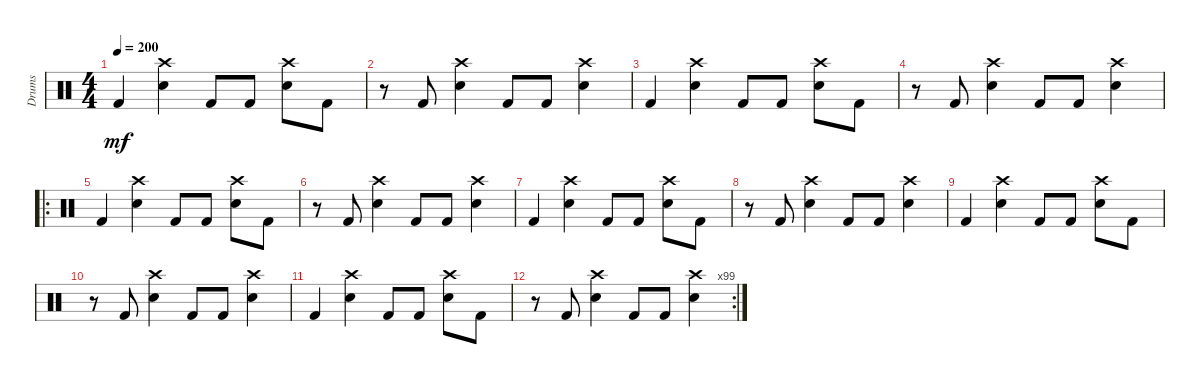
\track ("Drums" "Drums") {instrument percussion}
\staff {score}
\articulation defaults
\ts (4 4)
\tempo 200
\clef neutral
\ks c "Kick (hit) 2".4{dy mf}
("Crash high (hit)" "Electric Snare (hit)").4 "Kick (hit) 2".8 "Kick (hit) 2".8 ("Crash high (hit)" "Electric Snare (hit)").8 "Kick (hit) 2".8 |
r.8 "Kick (hit) 2".8 ("Crash high (hit)" "Electric Snare (hit)").4 "Kick (hit) 2".8 "Kick (hit) 2".8 ("Crash high (hit)" "Electric Snare (hit)").4 |
"Kick (hit) 2".4 ("Crash high (hit)" "Electric Snare (hit)").4 "Kick (hit) 2".8 "Kick (hit) 2".8 ("Crash high (hit)" "Electric Snare (hit)").8 "Kick (hit) 2".8 |
r.8 "Kick (hit) 2".8 ("Crash high (hit)" "Electric Snare (hit)").4 "Kick (hit) 2".8 "Kick (hit) 2".8 ("Crash high (hit)" "Electric Snare (hit)").4 |
\ro "Kick (hit) 2".4
("Crash high (hit)" "Electric Snare (hit)").4 "Kick (hit) 2".8 "Kick (hit) 2".8 ("Crash high (hit)" "Electric Snare (hit)").8 "Kick (hit) 2".8 |
r.8 "Kick (hit) 2".8 ("Crash high (hit)" "Electric Snare (hit)").4 "Kick (hit) 2".8 "Kick (hit) 2".8 ("Crash high (hit)" "Electric Snare (hit)").4 |
"Kick (hit) 2".4 ("Crash high (hit)" "Electric Snare (hit)").4 "Kick (hit) 2".8 "Kick (hit) 2".8 ("Crash high (hit)" "Electric Snare (hit)").8 "Kick (hit) 2".8 |
r.8 "Kick (hit) 2".8 ("Crash high (hit)" "Electric Snare (hit)").4 "Kick (hit) 2".8 "Kick (hit) 2".8 ("Crash high (hit)" "Electric Snare (hit)").4 |
"Kick (hit) 2".4 ("Crash high (hit)" "Electric Snare (hit)").4 "Kick (hit) 2".8 "Kick (hit) 2".8 ("Crash high (hit)" "Electric Snare (hit)").8 "Kick (hit) 2".8 |
r.8 "Kick (hit) 2".8 ("Crash high (hit)" "Electric Snare (hit)").4 "Kick (hit) 2".8 "Kick (hit) 2".8 ("Crash high (hit)" "Electric Snare (hit)").4 |
"Kick (hit) 2".4 ("Crash high (hit)" "Electric Snare (hit)").4 "Kick (hit) 2".8 "Kick (hit) 2".8 ("Crash high (hit)" "Electric Snare (hit)").8 "Kick (hit) 2".8 |
\rc 99
r.8 "Kick (hit) 2".8 ("Crash high (hit)" "Electric Snare (hit)").4 "Kick (hit) 2".8 "Kick (hit) 2".8 ("Crash high (hit)" "Electric Snare (hit)").4
